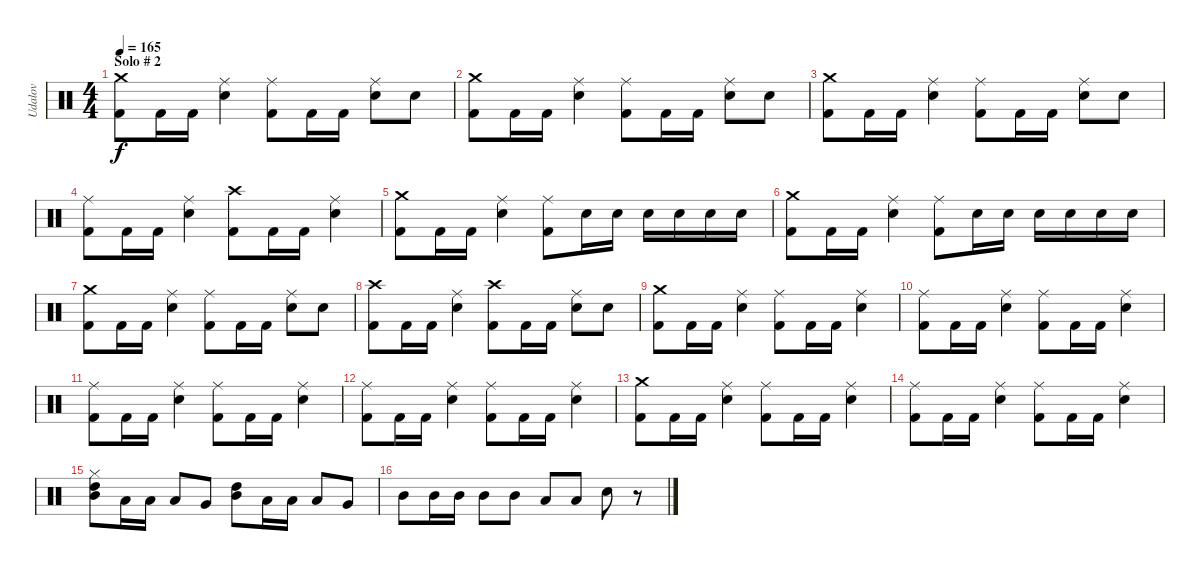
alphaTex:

\track ("Udalov" "Udalov") {instrument percussion}
\staff {score}
\articulation defaults
\ts (4 4)
\section ("" "Solo # 2")
\tempo 165
\clef neutral
\ks c
("Kick (hit) 2" "Crash medium (hit)").8{dy f} "Kick (hit) 2".16 "Kick (hit) 2".16 ("Snare (hit) 2" "Ride (middle)").4 ("Kick (hit) 2" "Ride (middle)").8 "Kick (hit) 2".16 "Kick (hit) 2".16 ("Snare (hit) 2" "Ride (middle)").8 "Snare (hit) 2".8 |
("Kick (hit) 2" "Crash medium (hit)").8 "Kick (hit) 2".16 "Kick (hit) 2".16 ("Snare (hit) 2" "Ride (middle)").4 ("Kick (hit) 2" "Ride (middle)").8 "Kick (hit) 2".16 "Kick (hit) 2".16 ("Snare (hit) 2" "Ride (middle)").8 "Snare (hit) 2".8 |
("Kick (hit) 2" "Crash medium (hit)").8 "Kick (hit) 2".16 "Kick (hit) 2".16 ("Snare (hit) 2" "Ride (middle)").4 ("Kick (hit) 2" "Ride (middle)").8 "Kick (hit) 2".16 "Kick (hit) 2".16 ("Snare (hit) 2" "Ride (middle)").8 "Snare (hit) 2".8 |
("Kick (hit) 2" "Ride (middle)").8 "Kick (hit) 2".16 "Kick (hit) 2".16 ("Snare (hit) 2" "Ride (middle)").4 ("Kick (hit) 2" "Crash high (hit)").8 "Kick (hit) 2".16 "Kick (hit) 2".16 ("Snare (hit) 2" "Ride (middle)").4 |
("Kick (hit) 2" "Crash medium (hit)").8 "Kick (hit) 2".16 "Kick (hit) 2".16 ("Snare (hit) 2" "Ride (middle)").4 ("Kick (hit) 2" "Ride (middle)").8 "Snare (hit) 2".16 "Snare (hit) 2".16 "Snare (hit) 2".16 "Snare (hit) 2".16 "Snare (hit) 2".16 "Snare (hit) 2".16 |
("Kick (hit) 2" "Crash medium (hit)").8 "Kick (hit) 2".16 "Kick (hit) 2".16 ("Snare (hit) 2" "Ride (middle)").4 ("Kick (hit) 2" "Ride (middle)").8 "Snare (hit) 2".16 "Snare (hit) 2".16 "Snare (hit) 2".16 "Snare (hit) 2".16 "Snare (hit) 2".16 "Snare (hit) 2".16 |
("Kick (hit) 2" "Crash medium (hit)").8 "Kick (hit) 2".16 "Kick (hit) 2".16 ("Snare (hit) 2" "Ride (middle)").4 ("Kick (hit) 2" "Ride (middle)").8 "Kick (hit) 2".16 "Kick (hit) 2".16 ("Snare (hit) 2" "Ride (middle)").8 "Snare (hit) 2".8 |
("Kick (hit) 2" "Crash high (hit)").8 "Kick (hit) 2".16 "Kick (hit) 2".16 ("Snare (hit) 2" "Ride (middle)").4 ("Kick (hit) 2" "Crash high (hit)").8 "Kick (hit) 2".16 "Kick (hit) 2".16 ("Snare (hit) 2" "Ride (middle)").8 "Snare (hit) 2".8 |
("Kick (hit) 2" "Crash medium (hit)").8 "Kick (hit) 2".16 "Kick (hit) 2".16 ("Snare (hit) 2" "Ride (middle)").4 ("Kick (hit) 2" "Ride (middle)").8 "Kick (hit) 2".16 "Kick (hit) 2".16 ("Snare (hit) 2" "Ride (middle)").4 |
("Kick (hit) 2" "Ride (middle)").8 "Kick (hit) 2".16 "Kick (hit) 2".16 ("Snare (hit) 2" "Ride (middle)").4 ("Kick (hit) 2" "Ride (middle)").8 "Kick (hit) 2".16 "Kick (hit) 2".16 ("Snare (hit) 2" "Ride (middle)").4 |
("Kick (hit) 2" "Ride (middle)").8 "Kick (hit) 2".16 "Kick (hit) 2".16 ("Snare (hit) 2" "Ride (middle)").4 ("Kick (hit) 2" "Ride (middle)").8 "Kick (hit) 2".16 "Kick (hit) 2".16 ("Snare (hit) 2" "Ride (middle)").4 |
("Kick (hit) 2" "Ride (middle)").8 "Kick (hit) 2".16 "Kick (hit) 2".16 ("Snare (hit) 2" "Ride (middle)").4 ("Kick (hit) 2" "Ride (middle)").8 "Kick (hit) 2".16 "Kick (hit) 2".16 ("Snare (hit) 2" "Ride (middle)").4 |
("Kick (hit) 2" "Crash medium (hit)").8 "Kick (hit) 2".16 "Kick (hit) 2".16 ("Snare (hit) 2" "Ride (middle)").4 ("Kick (hit) 2" "Ride (middle)").8 "Kick (hit) 2".16 "Kick (hit) 2".16 ("Snare (hit) 2" "Ride (middle)").4 |
("Kick (hit) 2" "Ride (middle)").8 "Kick (hit) 2".16 "Kick (hit) 2".16 ("Snare (hit) 2" "Ride (middle)").4 ("Kick (hit) 2" "Ride (middle)").8 "Kick (hit) 2".16 "Kick (hit) 2".16 ("Snare (hit) 2" "Ride (middle)").4 |
("Mid Tom (hit)" "High Tom (hit)" "Hi-Hat (closed)").8 "Low Tom (hit)".16 "Low Tom (hit)".16 "Low Tom (hit)".8 "Very Low Tom (hit)".8 ("Mid Tom (hit)" "High Tom (hit)").8 "Low Tom (hit)".16 "Low Tom (hit)".16 "Low Tom (hit)".8 "Very Low Tom (hit)".8 |
"Mid Tom (hit)".8 "Mid Tom (hit)".16 "Mid Tom (hit)".16 "Mid Tom (hit)".8 "Mid Tom (hit)".8 "Low Tom (hit)".8 "Low Tom (hit)".8 "Electric Snare (hit)".8 r.8
